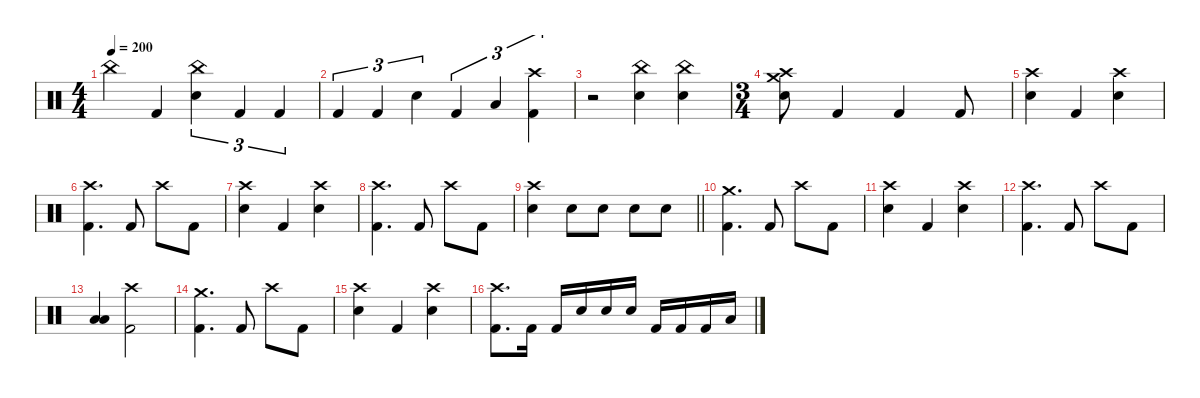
\defaultSystemsLayout 4
\hideDynamics
\bracketExtendMode nobrackets
\singleTrackTrackNamePolicy hidden
\multiTrackTrackNamePolicy hidden
\firstSystemTrackNameMode fullname
\otherSystemsTrackNameOrientation horizontal
\track ("Drums" "drm.") {defaultSystemsLayout 4 instrument percussion}
\staff {score}
\articulation defaults
\ts (4 4)
\tempo 200
\clef neutral
\ks c "China (hit)".4{dy f beam Down} "Kick (hit) 2".4{beam Up}
("China (hit)" "Snare (hit) 2").4{tu (3 2) beam Down} "Kick (hit) 2".4{tu (3 2) beam Up} "Kick (hit) 2".4{tu (3 2) beam Up} |
"Kick (hit) 2".4{tu (3 2) beam Up} "Kick (hit) 2".4{tu (3 2) beam Up} "Snare (hit) 2".4{tu (3 2) beam Down} "Kick (hit) 2".4{tu (3 2) beam Up} "Low Tom (hit)".4{tu (3 2) beam Up} ("Crash high (hit)" "Kick (hit) 2").4{tu (3 2) beam Down} |
r.2{beam Down} ("China (hit)" "Snare (hit) 2").4{beam Down} ("China (hit)" "Snare (hit) 2").4{beam Down} |
\ts (3 4)
\beaming (8 2 2 2)
("Crash high (hit)" "Crash medium (hit)" "Snare (hit) 2").8{beam Down} "Kick (hit) 2".4{beam Up} "Kick (hit) 2".4{beam Up} "Kick (hit) 2".8{beam Up} |
("Crash high (hit)" "Snare (hit) 2").4{beam Down} "Kick (hit) 2".4{beam Up} ("Crash high (hit)" "Snare (hit) 2").4{beam Down} |
("Crash high (hit)" "Kick (hit) 2").4{d dy mp beam Down} "Kick (hit) 2".8{dy f beam Up} "Crash high (hit)".8{dy mp beam Down} "Kick (hit) 2".8{dy f beam Down} |
("Crash high (hit)" "Snare (hit) 2").4{beam Down} "Kick (hit) 2".4{beam Up} ("Crash high (hit)" "Snare (hit) 2").4{beam Down} |
("Crash high (hit)" "Kick (hit) 2").4{d dy mp beam Down} "Kick (hit) 2".8{dy f beam Up} "Crash high (hit)".8{dy mp beam Down} "Kick (hit) 2".8{dy f beam Down} |
\barLineRight lightlight
("Crash high (hit)" "Snare (hit) 2").4{beam Down} "Snare (hit) 2".8{beam Down} "Snare (hit) 2".8{beam Down} "Snare (hit) 2".8{beam Down} "Snare (hit) 2".8{beam Down} |
("Crash medium (hit)" "Kick (hit) 2").4{d beam Down} "Kick (hit) 2".8{beam Up} "Crash high (hit)".8{dy mp beam Down} "Kick (hit) 2".8{dy f beam Down} |
("Crash high (hit)" "Snare (hit) 2").4{beam Down} "Kick (hit) 2".4{beam Up} ("Crash high (hit)" "Snare (hit) 2").4{beam Down} |
("Crash high (hit)" "Kick (hit) 2").4{d dy mp beam Down} "Kick (hit) 2".8{dy f beam Up} "Crash high (hit)".8{dy mp beam Down} "Kick (hit) 2".8{dy f beam Down} |
("Low Floor Tom (hit)" "Low Floor Tom (hit)").4{beam Up} ("Crash high (hit)" "Kick (hit) 2").2{beam Down} |
("Crash medium (hit)" "Kick (hit) 2").4{d beam Down} "Kick (hit) 2".8{beam Up} "Crash high (hit)".8{dy mp beam Down} "Kick (hit) 2".8{dy f beam Down} |
("Crash high (hit)" "Snare (hit) 2").4{beam Down} "Kick (hit) 2".4{beam Up} ("Crash high (hit)" "Snare (hit) 2").4{beam Down} |
("Crash high (hit)" "Kick (hit) 2").8{d dy mp beam Down} "Kick (hit) 2".16{dy f beam Down} "Kick (hit) 2".16{beam Up} "Snare (hit) 2".16{beam Up} "Snare (hit) 2".16{beam Up} "Snare (hit) 2".16{beam Up} "Kick (hit) 2".16{beam Up} "Kick (hit) 2".16{beam Up} "Kick (hit) 2".16{beam Up} "Low Tom (hit)".16{beam Up}
